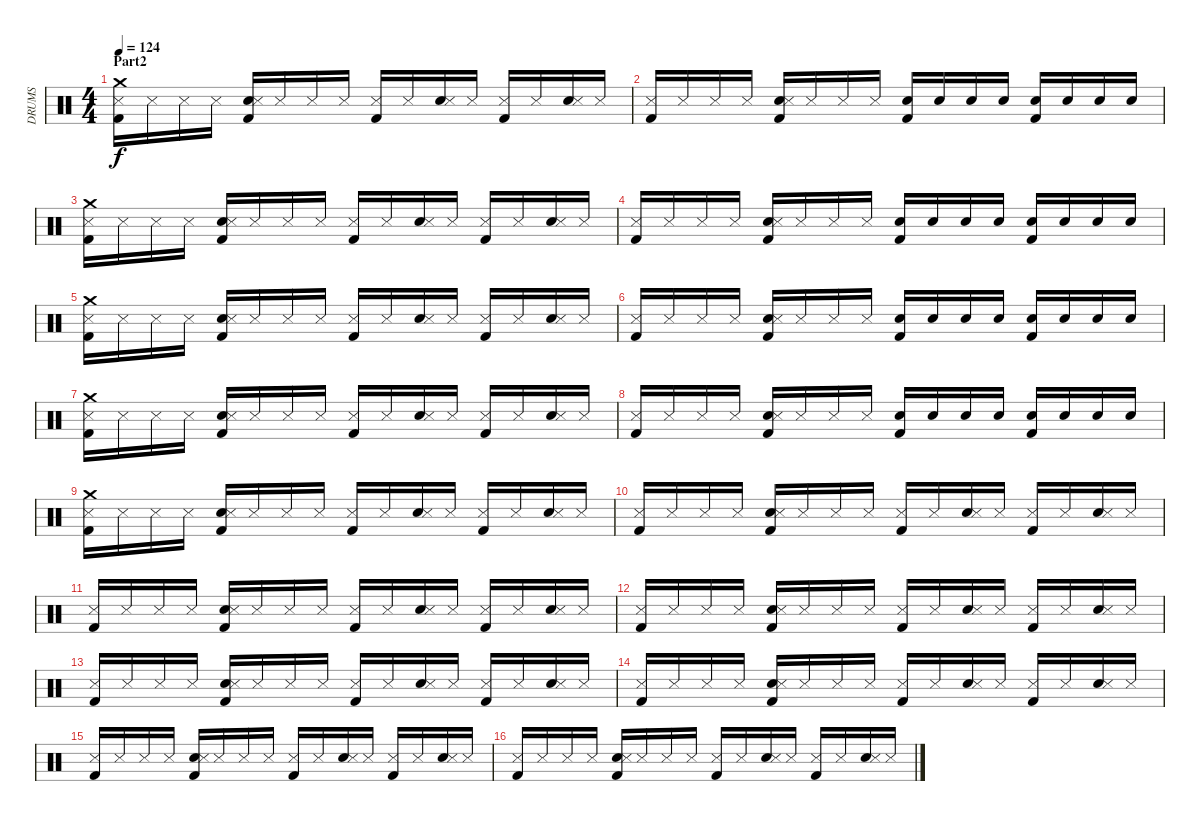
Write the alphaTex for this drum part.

\track ("DRUMS" "DRUMS") {instrument percussion}
\staff {score}
\articulation defaults
\ts (4 4)
\section ("" "Part2")
\tempo 124
\clef neutral
\ks c
("Kick (hit) 2" "Snare (side stick) 3" "Crash medium (hit)").16{dy f} "Snare (side stick) 3".16 "Snare (side stick) 3".16 "Snare (side stick) 3".16 ("Kick (hit) 2" "Snare (hit) 2" "Snare (side stick) 3").16 "Snare (side stick) 3".16 "Snare (side stick) 3".16 "Snare (side stick) 3".16 ("Kick (hit) 2" "Snare (side stick) 3").16 "Snare (side stick) 3".16 ("Snare (hit) 2" "Snare (side stick) 3").16 "Snare (side stick) 3".16 ("Kick (hit) 2" "Snare (side stick) 3").16 "Snare (side stick) 3".16 ("Snare (hit) 2" "Snare (side stick) 3").16 "Snare (side stick) 3".16 |
("Kick (hit) 2" "Snare (side stick) 3").16 "Snare (side stick) 3".16 "Snare (side stick) 3".16 "Snare (side stick) 3".16 ("Kick (hit) 2" "Snare (hit) 2" "Snare (side stick) 3").16 "Snare (side stick) 3".16 "Snare (side stick) 3".16 "Snare (side stick) 3".16 ("Kick (hit) 2" "Snare (hit) 2").16 "Snare (hit) 2".16 "Snare (hit) 2".16 "Snare (hit) 2".16 ("Kick (hit) 2" "Snare (hit) 2").16 "Snare (hit) 2".16 "Snare (hit) 2".16 "Snare (hit) 2".16 |
("Kick (hit) 2" "Snare (side stick) 3" "Crash medium (hit)").16 "Snare (side stick) 3".16 "Snare (side stick) 3".16 "Snare (side stick) 3".16 ("Kick (hit) 2" "Snare (hit) 2" "Snare (side stick) 3").16 "Snare (side stick) 3".16 "Snare (side stick) 3".16 "Snare (side stick) 3".16 ("Kick (hit) 2" "Snare (side stick) 3").16 "Snare (side stick) 3".16 ("Snare (hit) 2" "Snare (side stick) 3").16 "Snare (side stick) 3".16 ("Kick (hit) 2" "Snare (side stick) 3").16 "Snare (side stick) 3".16 ("Snare (hit) 2" "Snare (side stick) 3").16 "Snare (side stick) 3".16 |
("Kick (hit) 2" "Snare (side stick) 3").16 "Snare (side stick) 3".16 "Snare (side stick) 3".16 "Snare (side stick) 3".16 ("Kick (hit) 2" "Snare (hit) 2" "Snare (side stick) 3").16 "Snare (side stick) 3".16 "Snare (side stick) 3".16 "Snare (side stick) 3".16 ("Kick (hit) 2" "Snare (hit) 2").16 "Snare (hit) 2".16 "Snare (hit) 2".16 "Snare (hit) 2".16 ("Kick (hit) 2" "Snare (hit) 2").16 "Snare (hit) 2".16 "Snare (hit) 2".16 "Snare (hit) 2".16 |
("Kick (hit) 2" "Snare (side stick) 3" "Crash medium (hit)").16 "Snare (side stick) 3".16 "Snare (side stick) 3".16 "Snare (side stick) 3".16 ("Kick (hit) 2" "Snare (hit) 2" "Snare (side stick) 3").16 "Snare (side stick) 3".16 "Snare (side stick) 3".16 "Snare (side stick) 3".16 ("Kick (hit) 2" "Snare (side stick) 3").16 "Snare (side stick) 3".16 ("Snare (hit) 2" "Snare (side stick) 3").16 "Snare (side stick) 3".16 ("Kick (hit) 2" "Snare (side stick) 3").16 "Snare (side stick) 3".16 ("Snare (hit) 2" "Snare (side stick) 3").16 "Snare (side stick) 3".16 |
("Kick (hit) 2" "Snare (side stick) 3").16 "Snare (side stick) 3".16 "Snare (side stick) 3".16 "Snare (side stick) 3".16 ("Kick (hit) 2" "Snare (hit) 2" "Snare (side stick) 3").16 "Snare (side stick) 3".16 "Snare (side stick) 3".16 "Snare (side stick) 3".16 ("Kick (hit) 2" "Snare (hit) 2").16 "Snare (hit) 2".16 "Snare (hit) 2".16 "Snare (hit) 2".16 ("Kick (hit) 2" "Snare (hit) 2").16 "Snare (hit) 2".16 "Snare (hit) 2".16 "Snare (hit) 2".16 |
("Kick (hit) 2" "Snare (side stick) 3" "Crash medium (hit)").16 "Snare (side stick) 3".16 "Snare (side stick) 3".16 "Snare (side stick) 3".16 ("Kick (hit) 2" "Snare (hit) 2" "Snare (side stick) 3").16 "Snare (side stick) 3".16 "Snare (side stick) 3".16 "Snare (side stick) 3".16 ("Kick (hit) 2" "Snare (side stick) 3").16 "Snare (side stick) 3".16 ("Snare (hit) 2" "Snare (side stick) 3").16 "Snare (side stick) 3".16 ("Kick (hit) 2" "Snare (side stick) 3").16 "Snare (side stick) 3".16 ("Snare (hit) 2" "Snare (side stick) 3").16 "Snare (side stick) 3".16 |
("Kick (hit) 2" "Snare (side stick) 3").16 "Snare (side stick) 3".16 "Snare (side stick) 3".16 "Snare (side stick) 3".16 ("Kick (hit) 2" "Snare (hit) 2" "Snare (side stick) 3").16 "Snare (side stick) 3".16 "Snare (side stick) 3".16 "Snare (side stick) 3".16 ("Kick (hit) 2" "Snare (hit) 2").16 "Snare (hit) 2".16 "Snare (hit) 2".16 "Snare (hit) 2".16 ("Kick (hit) 2" "Snare (hit) 2").16 "Snare (hit) 2".16 "Snare (hit) 2".16 "Snare (hit) 2".16 |
("Kick (hit) 2" "Snare (side stick) 3" "Crash medium (hit)").16 "Snare (side stick) 3".16 "Snare (side stick) 3".16 "Snare (side stick) 3".16 ("Kick (hit) 2" "Snare (hit) 2" "Snare (side stick) 3").16 "Snare (side stick) 3".16 "Snare (side stick) 3".16 "Snare (side stick) 3".16 ("Kick (hit) 2" "Snare (side stick) 3").16 "Snare (side stick) 3".16 ("Snare (hit) 2" "Snare (side stick) 3").16 "Snare (side stick) 3".16 ("Kick (hit) 2" "Snare (side stick) 3").16 "Snare (side stick) 3".16 ("Snare (hit) 2" "Snare (side stick) 3").16 "Snare (side stick) 3".16 |
("Kick (hit) 2" "Snare (side stick) 3").16 "Snare (side stick) 3".16 "Snare (side stick) 3".16 "Snare (side stick) 3".16 ("Kick (hit) 2" "Snare (hit) 2" "Snare (side stick) 3").16 "Snare (side stick) 3".16 "Snare (side stick) 3".16 "Snare (side stick) 3".16 ("Kick (hit) 2" "Snare (side stick) 3").16 "Snare (side stick) 3".16 ("Snare (hit) 2" "Snare (side stick) 3").16 "Snare (side stick) 3".16 ("Kick (hit) 2" "Snare (side stick) 3").16 "Snare (side stick) 3".16 ("Snare (hit) 2" "Snare (side stick) 3").16 "Snare (side stick) 3".16 |
("Kick (hit) 2" "Snare (side stick) 3").16 "Snare (side stick) 3".16 "Snare (side stick) 3".16 "Snare (side stick) 3".16 ("Kick (hit) 2" "Snare (hit) 2" "Snare (side stick) 3").16 "Snare (side stick) 3".16 "Snare (side stick) 3".16 "Snare (side stick) 3".16 ("Kick (hit) 2" "Snare (side stick) 3").16 "Snare (side stick) 3".16 ("Snare (hit) 2" "Snare (side stick) 3").16 "Snare (side stick) 3".16 ("Kick (hit) 2" "Snare (side stick) 3").16 "Snare (side stick) 3".16 ("Snare (hit) 2" "Snare (side stick) 3").16 "Snare (side stick) 3".16 |
("Kick (hit) 2" "Snare (side stick) 3").16 "Snare (side stick) 3".16 "Snare (side stick) 3".16 "Snare (side stick) 3".16 ("Kick (hit) 2" "Snare (hit) 2" "Snare (side stick) 3").16 "Snare (side stick) 3".16 "Snare (side stick) 3".16 "Snare (side stick) 3".16 ("Kick (hit) 2" "Snare (side stick) 3").16 "Snare (side stick) 3".16 ("Snare (hit) 2" "Snare (side stick) 3").16 "Snare (side stick) 3".16 ("Kick (hit) 2" "Snare (side stick) 3").16 "Snare (side stick) 3".16 ("Snare (hit) 2" "Snare (side stick) 3").16 "Snare (side stick) 3".16 |
("Kick (hit) 2" "Snare (side stick) 3").16 "Snare (side stick) 3".16 "Snare (side stick) 3".16 "Snare (side stick) 3".16 ("Kick (hit) 2" "Snare (hit) 2" "Snare (side stick) 3").16 "Snare (side stick) 3".16 "Snare (side stick) 3".16 "Snare (side stick) 3".16 ("Kick (hit) 2" "Snare (side stick) 3").16 "Snare (side stick) 3".16 ("Snare (hit) 2" "Snare (side stick) 3").16 "Snare (side stick) 3".16 ("Kick (hit) 2" "Snare (side stick) 3").16 "Snare (side stick) 3".16 ("Snare (hit) 2" "Snare (side stick) 3").16 "Snare (side stick) 3".16 |
("Kick (hit) 2" "Snare (side stick) 3").16 "Snare (side stick) 3".16 "Snare (side stick) 3".16 "Snare (side stick) 3".16 ("Kick (hit) 2" "Snare (hit) 2" "Snare (side stick) 3").16 "Snare (side stick) 3".16 "Snare (side stick) 3".16 "Snare (side stick) 3".16 ("Kick (hit) 2" "Snare (side stick) 3").16 "Snare (side stick) 3".16 ("Snare (hit) 2" "Snare (side stick) 3").16 "Snare (side stick) 3".16 ("Kick (hit) 2" "Snare (side stick) 3").16 "Snare (side stick) 3".16 ("Snare (hit) 2" "Snare (side stick) 3").16 "Snare (side stick) 3".16 |
("Kick (hit) 2" "Snare (side stick) 3").16 "Snare (side stick) 3".16 "Snare (side stick) 3".16 "Snare (side stick) 3".16 ("Kick (hit) 2" "Snare (hit) 2" "Snare (side stick) 3").16 "Snare (side stick) 3".16 "Snare (side stick) 3".16 "Snare (side stick) 3".16 ("Kick (hit) 2" "Snare (side stick) 3").16 "Snare (side stick) 3".16 ("Snare (hit) 2" "Snare (side stick) 3").16 "Snare (side stick) 3".16 ("Kick (hit) 2" "Snare (side stick) 3").16 "Snare (side stick) 3".16 ("Snare (hit) 2" "Snare (side stick) 3").16 "Snare (side stick) 3".16 |
("Kick (hit) 2" "Snare (side stick) 3").16 "Snare (side stick) 3".16 "Snare (side stick) 3".16 "Snare (side stick) 3".16 ("Kick (hit) 2" "Snare (hit) 2" "Snare (side stick) 3").16 "Snare (side stick) 3".16 "Snare (side stick) 3".16 "Snare (side stick) 3".16 ("Kick (hit) 2" "Snare (side stick) 3").16 "Snare (side stick) 3".16 ("Snare (hit) 2" "Snare (side stick) 3").16 "Snare (side stick) 3".16 ("Kick (hit) 2" "Snare (side stick) 3").16 "Snare (side stick) 3".16 ("Snare (hit) 2" "Snare (side stick) 3").16 "Snare (side stick) 3".16
